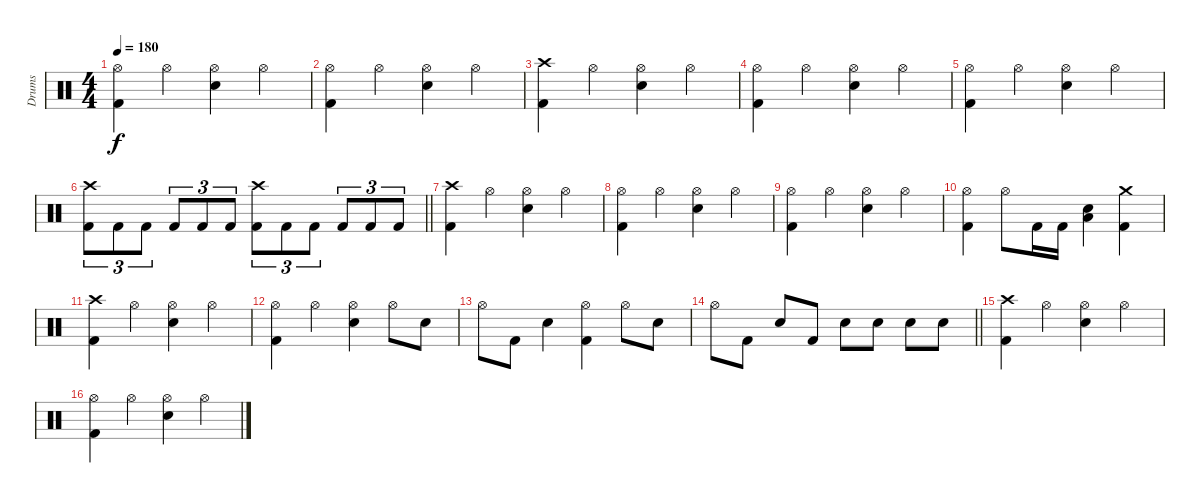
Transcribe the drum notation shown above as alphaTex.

\track ("Drums" "Drums") {instrument percussion}
\staff {score}
\articulation defaults
\ts (4 4)
\tempo 180
\clef neutral
\ks c
("Hi-Hat (open)" "Kick (hit) 2").4{dy f} "Hi-Hat (open)".4 ("Hi-Hat (open)" "Electric Snare (hit)").4 "Hi-Hat (open)".4 |
("Hi-Hat (open)" "Kick (hit) 2").4 "Hi-Hat (open)".4 ("Hi-Hat (open)" "Electric Snare (hit)").4 "Hi-Hat (open)".4 |
("Crash high (hit)" "Kick (hit) 2").4 "Hi-Hat (open)".4 ("Hi-Hat (open)" "Electric Snare (hit)").4 "Hi-Hat (open)".4 |
("Hi-Hat (open)" "Kick (hit) 2").4 "Hi-Hat (open)".4 ("Hi-Hat (open)" "Electric Snare (hit)").4 "Hi-Hat (open)".4 |
("Hi-Hat (open)" "Kick (hit) 2").4 "Hi-Hat (open)".4 ("Hi-Hat (open)" "Electric Snare (hit)").4 "Hi-Hat (open)".4 |
\barLineRight lightlight
("Crash high (hit)" "Kick (hit) 2").8{tu (3 2)} "Kick (hit) 2".8{tu (3 2)} "Kick (hit) 2".8{tu (3 2)} "Kick (hit) 2".8{tu (3 2)} "Kick (hit) 2".8{tu (3 2)} "Kick (hit) 2".8{tu (3 2)} ("Crash high (hit)" "Kick (hit) 2").8{tu (3 2)} "Kick (hit) 2".8{tu (3 2)} "Kick (hit) 2".8{tu (3 2)} "Kick (hit) 2".8{tu (3 2)} "Kick (hit) 2".8{tu (3 2)} "Kick (hit) 2".8{tu (3 2)} |
\section ("" "")
("Crash high (hit)" "Kick (hit) 2").4 "Hi-Hat (open)".4 ("Hi-Hat (open)" "Electric Snare (hit)").4 "Hi-Hat (open)".4 |
("Hi-Hat (open)" "Kick (hit) 2").4 "Hi-Hat (open)".4 ("Hi-Hat (open)" "Electric Snare (hit)").4 "Hi-Hat (open)".4 |
("Hi-Hat (open)" "Kick (hit) 2").4 "Hi-Hat (open)".4 ("Hi-Hat (open)" "Electric Snare (hit)").4 "Hi-Hat (open)".4 |
("Hi-Hat (open)" "Kick (hit) 2").4 "Hi-Hat (open)".8 "Kick (hit) 2".16 "Kick (hit) 2".16 ("Electric Snare (hit)" "Low Floor Tom (hit)").4 ("Crash medium (hit)" "Kick (hit) 2").4 |
("Crash high (hit)" "Kick (hit) 2").4 "Hi-Hat (open)".4 ("Hi-Hat (open)" "Electric Snare (hit)").4 "Hi-Hat (open)".4 |
("Hi-Hat (open)" "Kick (hit) 2").4 "Hi-Hat (open)".4 ("Hi-Hat (open)" "Electric Snare (hit)").4 "Hi-Hat (open)".8 "Electric Snare (hit)".8 |
"Hi-Hat (open)".8 "Kick (hit) 2".8 "Electric Snare (hit)".4 ("Hi-Hat (open)" "Kick (hit) 2").4 "Hi-Hat (open)".8 "Electric Snare (hit)".8 |
\barLineRight lightlight "Hi-Hat (open)".8 "Kick (hit) 2".8 "Electric Snare (hit)".8 "Kick (hit) 2".8 "Electric Snare (hit)".8 "Electric Snare (hit)".8 "Electric Snare (hit)".8 "Electric Snare (hit)".8
|
("Crash high (hit)" "Kick (hit) 2").4 "Hi-Hat (open)".4 ("Hi-Hat (open)" "Electric Snare (hit)").4 "Hi-Hat (open)".4 |
("Hi-Hat (open)" "Kick (hit) 2").4 "Hi-Hat (open)".4 ("Hi-Hat (open)" "Electric Snare (hit)").4 "Hi-Hat (open)".4
